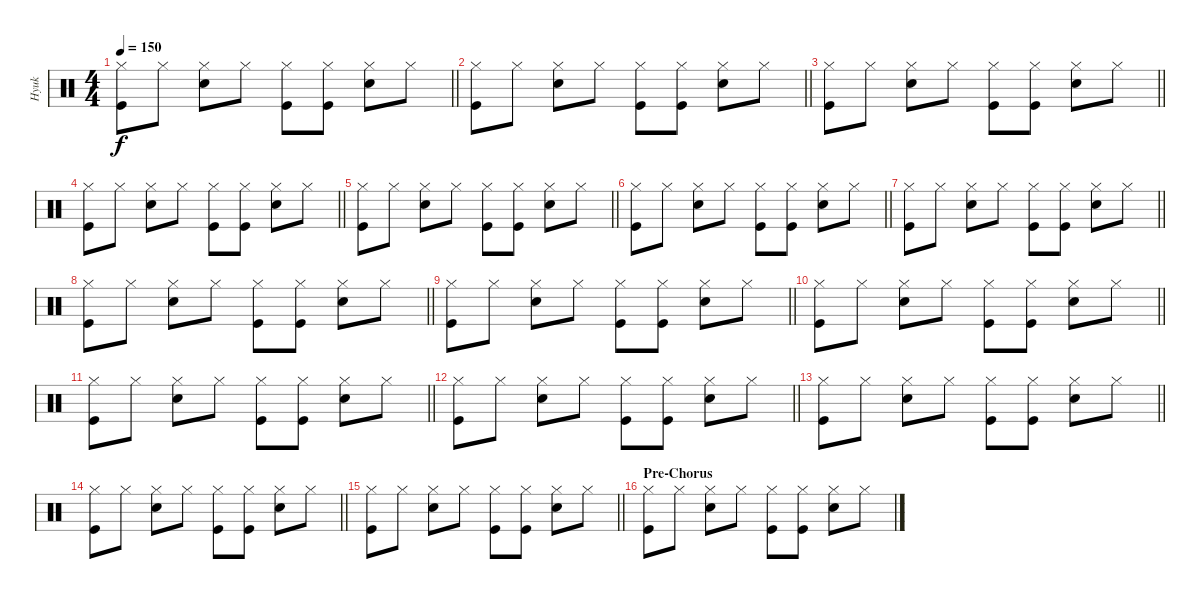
\track ("Hyuk" "Hyuk") {instrument percussion}
\staff {score}
\articulation defaults
\ts (4 4)
\tempo 150
\clef neutral
\barLineRight lightlight
\ks c
("Hi-Hat (closed)" "Kick (hit)").8{dy f} "Hi-Hat (closed)".8 ("Hi-Hat (closed)" "Snare (hit) 2").8 "Hi-Hat (closed)".8 ("Hi-Hat (closed)" "Kick (hit)").8 ("Hi-Hat (closed)" "Kick (hit)").8 ("Hi-Hat (closed)" "Snare (hit) 2").8 "Hi-Hat (closed)".8 |
\barLineRight lightlight
("Hi-Hat (closed)" "Kick (hit)").8 "Hi-Hat (closed)".8 ("Hi-Hat (closed)" "Snare (hit) 2").8 "Hi-Hat (closed)".8 ("Hi-Hat (closed)" "Kick (hit)").8 ("Hi-Hat (closed)" "Kick (hit)").8 ("Hi-Hat (closed)" "Snare (hit) 2").8 "Hi-Hat (closed)".8 |
\barLineRight lightlight
("Hi-Hat (closed)" "Kick (hit)").8 "Hi-Hat (closed)".8 ("Hi-Hat (closed)" "Snare (hit) 2").8 "Hi-Hat (closed)".8 ("Hi-Hat (closed)" "Kick (hit)").8 ("Hi-Hat (closed)" "Kick (hit)").8 ("Hi-Hat (closed)" "Snare (hit) 2").8 "Hi-Hat (closed)".8 |
\barLineRight lightlight
("Hi-Hat (closed)" "Kick (hit)").8 "Hi-Hat (closed)".8 ("Hi-Hat (closed)" "Snare (hit) 2").8 "Hi-Hat (closed)".8 ("Hi-Hat (closed)" "Kick (hit)").8 ("Hi-Hat (closed)" "Kick (hit)").8 ("Hi-Hat (closed)" "Snare (hit) 2").8 "Hi-Hat (closed)".8 |
\barLineRight lightlight
("Hi-Hat (closed)" "Kick (hit)").8 "Hi-Hat (closed)".8 ("Hi-Hat (closed)" "Snare (hit) 2").8 "Hi-Hat (closed)".8 ("Hi-Hat (closed)" "Kick (hit)").8 ("Hi-Hat (closed)" "Kick (hit)").8 ("Hi-Hat (closed)" "Snare (hit) 2").8 "Hi-Hat (closed)".8 |
\barLineRight lightlight
("Hi-Hat (closed)" "Kick (hit)").8 "Hi-Hat (closed)".8 ("Hi-Hat (closed)" "Snare (hit) 2").8 "Hi-Hat (closed)".8 ("Hi-Hat (closed)" "Kick (hit)").8 ("Hi-Hat (closed)" "Kick (hit)").8 ("Hi-Hat (closed)" "Snare (hit) 2").8 "Hi-Hat (closed)".8 |
\barLineRight lightlight
("Hi-Hat (closed)" "Kick (hit)").8 "Hi-Hat (closed)".8 ("Hi-Hat (closed)" "Snare (hit) 2").8 "Hi-Hat (closed)".8 ("Hi-Hat (closed)" "Kick (hit)").8 ("Hi-Hat (closed)" "Kick (hit)").8 ("Hi-Hat (closed)" "Snare (hit) 2").8 "Hi-Hat (closed)".8 |
\barLineRight lightlight
("Hi-Hat (closed)" "Kick (hit)").8 "Hi-Hat (closed)".8 ("Hi-Hat (closed)" "Snare (hit) 2").8 "Hi-Hat (closed)".8 ("Hi-Hat (closed)" "Kick (hit)").8 ("Hi-Hat (closed)" "Kick (hit)").8 ("Hi-Hat (closed)" "Snare (hit) 2").8 "Hi-Hat (closed)".8 |
\barLineRight lightlight
("Hi-Hat (closed)" "Kick (hit)").8 "Hi-Hat (closed)".8 ("Hi-Hat (closed)" "Snare (hit) 2").8 "Hi-Hat (closed)".8 ("Hi-Hat (closed)" "Kick (hit)").8 ("Hi-Hat (closed)" "Kick (hit)").8 ("Hi-Hat (closed)" "Snare (hit) 2").8 "Hi-Hat (closed)".8 |
\barLineRight lightlight
("Hi-Hat (closed)" "Kick (hit)").8 "Hi-Hat (closed)".8 ("Hi-Hat (closed)" "Snare (hit) 2").8 "Hi-Hat (closed)".8 ("Hi-Hat (closed)" "Kick (hit)").8 ("Hi-Hat (closed)" "Kick (hit)").8 ("Hi-Hat (closed)" "Snare (hit) 2").8 "Hi-Hat (closed)".8 |
\barLineRight lightlight
("Hi-Hat (closed)" "Kick (hit)").8 "Hi-Hat (closed)".8 ("Hi-Hat (closed)" "Snare (hit) 2").8 "Hi-Hat (closed)".8 ("Hi-Hat (closed)" "Kick (hit)").8 ("Hi-Hat (closed)" "Kick (hit)").8 ("Hi-Hat (closed)" "Snare (hit) 2").8 "Hi-Hat (closed)".8 |
\barLineRight lightlight
("Hi-Hat (closed)" "Kick (hit)").8 "Hi-Hat (closed)".8 ("Hi-Hat (closed)" "Snare (hit) 2").8 "Hi-Hat (closed)".8 ("Hi-Hat (closed)" "Kick (hit)").8 ("Hi-Hat (closed)" "Kick (hit)").8 ("Hi-Hat (closed)" "Snare (hit) 2").8 "Hi-Hat (closed)".8 |
\barLineRight lightlight
("Hi-Hat (closed)" "Kick (hit)").8 "Hi-Hat (closed)".8 ("Hi-Hat (closed)" "Snare (hit) 2").8 "Hi-Hat (closed)".8 ("Hi-Hat (closed)" "Kick (hit)").8 ("Hi-Hat (closed)" "Kick (hit)").8 ("Hi-Hat (closed)" "Snare (hit) 2").8 "Hi-Hat (closed)".8 |
\barLineRight lightlight
("Hi-Hat (closed)" "Kick (hit)").8 "Hi-Hat (closed)".8 ("Hi-Hat (closed)" "Snare (hit) 2").8 "Hi-Hat (closed)".8 ("Hi-Hat (closed)" "Kick (hit)").8 ("Hi-Hat (closed)" "Kick (hit)").8 ("Hi-Hat (closed)" "Snare (hit) 2").8 "Hi-Hat (closed)".8 |
\barLineRight lightlight
("Hi-Hat (closed)" "Kick (hit)").8 "Hi-Hat (closed)".8 ("Hi-Hat (closed)" "Snare (hit) 2").8 "Hi-Hat (closed)".8 ("Hi-Hat (closed)" "Kick (hit)").8 ("Hi-Hat (closed)" "Kick (hit)").8 ("Hi-Hat (closed)" "Snare (hit) 2").8 "Hi-Hat (closed)".8 |
\section ("" "Pre-Chorus")
("Hi-Hat (closed)" "Kick (hit)").8 "Hi-Hat (closed)".8 ("Hi-Hat (closed)" "Snare (hit) 2").8 "Hi-Hat (closed)".8 ("Hi-Hat (closed)" "Kick (hit)").8 ("Hi-Hat (closed)" "Kick (hit)").8 ("Hi-Hat (closed)" "Snare (hit) 2").8 "Hi-Hat (closed)".8
